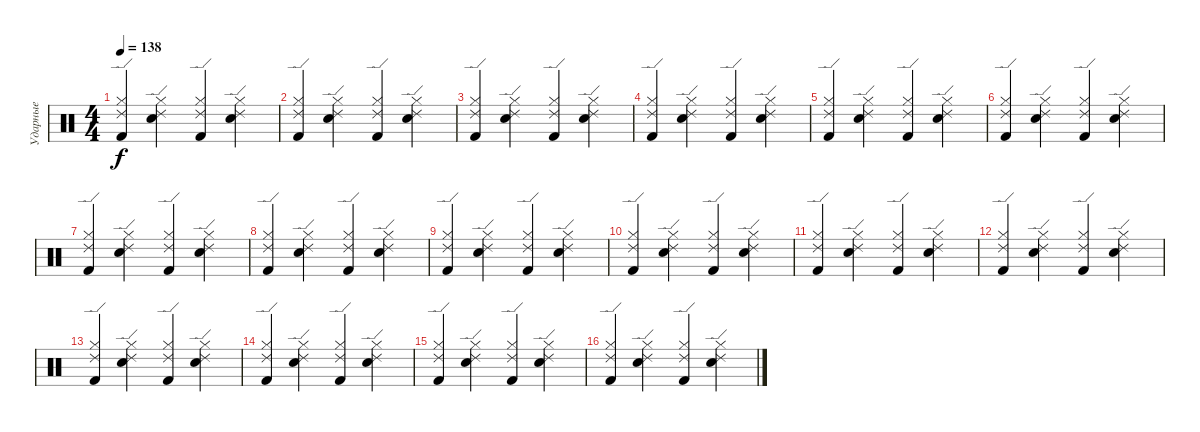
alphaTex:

\track ("Ударные" "Ударные") {instrument percussion}
\staff {score}
\articulation defaults
\ts (4 4)
\tempo 138
\clef neutral
\ks c
("Kick (hit) 2" "Hi-Hat (closed)" "Ride (edge) 2").4{dy f} ("Snare (hit) 2" "Hi-Hat (closed)" "Ride (edge) 2").4 ("Kick (hit) 2" "Hi-Hat (closed)" "Ride (edge) 2").4 ("Snare (hit) 2" "Hi-Hat (closed)" "Ride (edge) 2").4 |
("Kick (hit) 2" "Hi-Hat (closed)" "Ride (edge) 2").4 ("Snare (hit) 2" "Hi-Hat (closed)" "Ride (edge) 2").4 ("Kick (hit) 2" "Hi-Hat (closed)" "Ride (edge) 2").4 ("Snare (hit) 2" "Hi-Hat (closed)" "Ride (edge) 2").4 |
("Kick (hit) 2" "Hi-Hat (closed)" "Ride (edge) 2").4 ("Snare (hit) 2" "Hi-Hat (closed)" "Ride (edge) 2").4 ("Kick (hit) 2" "Hi-Hat (closed)" "Ride (edge) 2").4 ("Snare (hit) 2" "Hi-Hat (closed)" "Ride (edge) 2").4 |
("Kick (hit) 2" "Hi-Hat (closed)" "Ride (edge) 2").4 ("Snare (hit) 2" "Hi-Hat (closed)" "Ride (edge) 2").4 ("Kick (hit) 2" "Hi-Hat (closed)" "Ride (edge) 2").4 ("Snare (hit) 2" "Hi-Hat (closed)" "Ride (edge) 2").4 |
("Kick (hit) 2" "Hi-Hat (closed)" "Ride (edge) 2").4 ("Snare (hit) 2" "Hi-Hat (closed)" "Ride (edge) 2").4 ("Kick (hit) 2" "Hi-Hat (closed)" "Ride (edge) 2").4 ("Snare (hit) 2" "Hi-Hat (closed)" "Ride (edge) 2").4 |
("Kick (hit) 2" "Hi-Hat (closed)" "Ride (edge) 2").4 ("Snare (hit) 2" "Hi-Hat (closed)" "Ride (edge) 2").4 ("Kick (hit) 2" "Hi-Hat (closed)" "Ride (edge) 2").4 ("Snare (hit) 2" "Hi-Hat (closed)" "Ride (edge) 2").4 |
("Kick (hit) 2" "Hi-Hat (closed)" "Ride (edge) 2").4 ("Snare (hit) 2" "Hi-Hat (closed)" "Ride (edge) 2").4 ("Kick (hit) 2" "Hi-Hat (closed)" "Ride (edge) 2").4 ("Snare (hit) 2" "Hi-Hat (closed)" "Ride (edge) 2").4 |
("Kick (hit) 2" "Hi-Hat (closed)" "Ride (edge) 2").4 ("Snare (hit) 2" "Hi-Hat (closed)" "Ride (edge) 2").4 ("Kick (hit) 2" "Hi-Hat (closed)" "Ride (edge) 2").4 ("Snare (hit) 2" "Hi-Hat (closed)" "Ride (edge) 2").4 |
("Kick (hit) 2" "Hi-Hat (closed)" "Ride (edge) 2").4 ("Snare (hit) 2" "Hi-Hat (closed)" "Ride (edge) 2").4 ("Kick (hit) 2" "Hi-Hat (closed)" "Ride (edge) 2").4 ("Snare (hit) 2" "Hi-Hat (closed)" "Ride (edge) 2").4 |
("Kick (hit) 2" "Hi-Hat (closed)" "Ride (edge) 2").4 ("Snare (hit) 2" "Hi-Hat (closed)" "Ride (edge) 2").4 ("Kick (hit) 2" "Hi-Hat (closed)" "Ride (edge) 2").4 ("Snare (hit) 2" "Hi-Hat (closed)" "Ride (edge) 2").4 |
("Kick (hit) 2" "Hi-Hat (closed)" "Ride (edge) 2").4 ("Snare (hit) 2" "Hi-Hat (closed)" "Ride (edge) 2").4 ("Kick (hit) 2" "Hi-Hat (closed)" "Ride (edge) 2").4 ("Snare (hit) 2" "Hi-Hat (closed)" "Ride (edge) 2").4 |
("Kick (hit) 2" "Hi-Hat (closed)" "Ride (edge) 2").4 ("Snare (hit) 2" "Hi-Hat (closed)" "Ride (edge) 2").4 ("Kick (hit) 2" "Hi-Hat (closed)" "Ride (edge) 2").4 ("Snare (hit) 2" "Hi-Hat (closed)" "Ride (edge) 2").4 |
("Kick (hit) 2" "Hi-Hat (closed)" "Ride (edge) 2").4 ("Snare (hit) 2" "Hi-Hat (closed)" "Ride (edge) 2").4 ("Kick (hit) 2" "Hi-Hat (closed)" "Ride (edge) 2").4 ("Snare (hit) 2" "Hi-Hat (closed)" "Ride (edge) 2").4 |
("Kick (hit) 2" "Hi-Hat (closed)" "Ride (edge) 2").4 ("Snare (hit) 2" "Hi-Hat (closed)" "Ride (edge) 2").4 ("Kick (hit) 2" "Hi-Hat (closed)" "Ride (edge) 2").4 ("Snare (hit) 2" "Hi-Hat (closed)" "Ride (edge) 2").4 |
("Kick (hit) 2" "Hi-Hat (closed)" "Ride (edge) 2").4 ("Snare (hit) 2" "Hi-Hat (closed)" "Ride (edge) 2").4 ("Kick (hit) 2" "Hi-Hat (closed)" "Ride (edge) 2").4 ("Snare (hit) 2" "Hi-Hat (closed)" "Ride (edge) 2").4 |
("Kick (hit) 2" "Hi-Hat (closed)" "Ride (edge) 2").4 ("Snare (hit) 2" "Hi-Hat (closed)" "Ride (edge) 2").4 ("Kick (hit) 2" "Hi-Hat (closed)" "Ride (edge) 2").4 ("Snare (hit) 2" "Hi-Hat (closed)" "Ride (edge) 2").4
